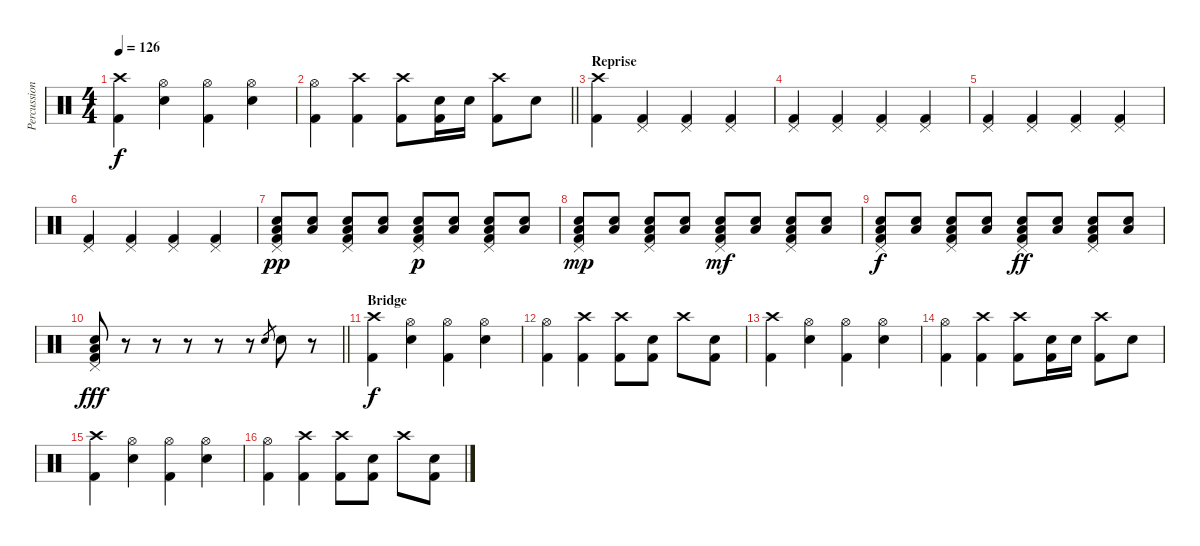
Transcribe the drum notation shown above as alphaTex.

\track ("Percussion" "Percussion") {instrument percussion}
\staff {score}
\articulation defaults
\ts (4 4)
\tempo 126
\clef neutral
\ks c
("Crash high (hit)" "Kick (hit) 2").4{dy f} ("Hi-Hat (open)" "Electric Snare (hit)").4 ("Hi-Hat (open)" "Kick (hit) 2").4 ("Hi-Hat (open)" "Electric Snare (hit)").4 |
\barLineRight lightlight
("Hi-Hat (open)" "Kick (hit) 2").4 ("Crash high (hit)" "Kick (hit) 2").4 ("Crash high (hit)" "Kick (hit) 2").8 ("Electric Snare (hit)" "Kick (hit) 2").16 "Electric Snare (hit)".16 ("Crash high (hit)" "Kick (hit) 2").8 "Electric Snare (hit)".8 |
\section ("" "Reprise")
("Crash high (hit)" "Kick (hit) 2").4 ("Pedal Hi-Hat (hit)" "Kick (hit) 2").4 ("Pedal Hi-Hat (hit)" "Kick (hit) 2").4 ("Pedal Hi-Hat (hit)" "Kick (hit) 2").4 |
("Pedal Hi-Hat (hit)" "Kick (hit) 2").4 ("Pedal Hi-Hat (hit)" "Kick (hit) 2").4 ("Pedal Hi-Hat (hit)" "Kick (hit) 2").4 ("Pedal Hi-Hat (hit)" "Kick (hit) 2").4 |
("Pedal Hi-Hat (hit)" "Kick (hit) 2").4 ("Pedal Hi-Hat (hit)" "Kick (hit) 2").4 ("Pedal Hi-Hat (hit)" "Kick (hit) 2").4 ("Pedal Hi-Hat (hit)" "Kick (hit) 2").4 |
("Pedal Hi-Hat (hit)" "Kick (hit) 2").4 ("Pedal Hi-Hat (hit)" "Kick (hit) 2").4 ("Pedal Hi-Hat (hit)" "Kick (hit) 2").4 ("Pedal Hi-Hat (hit)" "Kick (hit) 2").4 |
("Pedal Hi-Hat (hit)" "Electric Snare (hit)" "Low Floor Tom (hit)" "Kick (hit) 2").8{dy pp} ("Electric Snare (hit)" "Low Floor Tom (hit)").8 ("Pedal Hi-Hat (hit)" "Electric Snare (hit)" "Low Floor Tom (hit)" "Kick (hit) 2").8 ("Electric Snare (hit)" "Low Floor Tom (hit)").8 ("Pedal Hi-Hat (hit)" "Electric Snare (hit)" "Low Floor Tom (hit)" "Kick (hit) 2").8{dy p} ("Electric Snare (hit)" "Low Floor Tom (hit)").8 ("Pedal Hi-Hat (hit)" "Electric Snare (hit)" "Low Floor Tom (hit)" "Kick (hit) 2").8 ("Electric Snare (hit)" "Low Floor Tom (hit)").8 |
("Pedal Hi-Hat (hit)" "Electric Snare (hit)" "Low Floor Tom (hit)" "Kick (hit) 2").8{dy mp} ("Electric Snare (hit)" "Low Floor Tom (hit)").8 ("Pedal Hi-Hat (hit)" "Electric Snare (hit)" "Low Floor Tom (hit)" "Kick (hit) 2").8 ("Electric Snare (hit)" "Low Floor Tom (hit)").8 ("Pedal Hi-Hat (hit)" "Electric Snare (hit)" "Low Floor Tom (hit)" "Kick (hit) 2").8{dy mf} ("Electric Snare (hit)" "Low Floor Tom (hit)").8 ("Pedal Hi-Hat (hit)" "Electric Snare (hit)" "Low Floor Tom (hit)" "Kick (hit) 2").8 ("Electric Snare (hit)" "Low Floor Tom (hit)").8 |
("Pedal Hi-Hat (hit)" "Electric Snare (hit)" "Low Floor Tom (hit)" "Kick (hit) 2").8{dy f} ("Electric Snare (hit)" "Low Floor Tom (hit)").8 ("Pedal Hi-Hat (hit)" "Electric Snare (hit)" "Low Floor Tom (hit)" "Kick (hit) 2").8 ("Electric Snare (hit)" "Low Floor Tom (hit)").8 ("Pedal Hi-Hat (hit)" "Electric Snare (hit)" "Low Floor Tom (hit)" "Kick (hit) 2").8{dy ff} ("Electric Snare (hit)" "Low Floor Tom (hit)").8 ("Pedal Hi-Hat (hit)" "Electric Snare (hit)" "Low Floor Tom (hit)" "Kick (hit) 2").8 ("Electric Snare (hit)" "Low Floor Tom (hit)").8 |
\barLineRight lightlight
("Pedal Hi-Hat (hit)" "Electric Snare (hit)" "Low Floor Tom (hit)" "Kick (hit) 2").8{dy fff} r.8 r.8 r.8 r.8 r.8 "Electric Snare (hit)".8{gr} "Electric Snare (hit)".8 r.8 |
\section ("" "Bridge")
("Crash high (hit)" "Kick (hit) 2").4{dy f} ("Hi-Hat (open)" "Electric Snare (hit)").4 ("Hi-Hat (open)" "Kick (hit) 2").4 ("Hi-Hat (open)" "Electric Snare (hit)").4 |
("Hi-Hat (open)" "Kick (hit) 2").4 ("Crash high (hit)" "Kick (hit) 2").4 ("Crash high (hit)" "Kick (hit) 2").8 ("Electric Snare (hit)" "Kick (hit) 2").8 "Crash high (hit)".8 ("Electric Snare (hit)" "Kick (hit) 2").8 |
("Crash high (hit)" "Kick (hit) 2").4 ("Hi-Hat (open)" "Electric Snare (hit)").4 ("Hi-Hat (open)" "Kick (hit) 2").4 ("Hi-Hat (open)" "Electric Snare (hit)").4 |
("Hi-Hat (open)" "Kick (hit) 2").4 ("Crash high (hit)" "Kick (hit) 2").4 ("Crash high (hit)" "Kick (hit) 2").8 ("Electric Snare (hit)" "Kick (hit) 2").16 "Electric Snare (hit)".16 ("Crash high (hit)" "Kick (hit) 2").8 "Electric Snare (hit)".8 |
("Crash high (hit)" "Kick (hit) 2").4 ("Hi-Hat (open)" "Electric Snare (hit)").4 ("Hi-Hat (open)" "Kick (hit) 2").4 ("Hi-Hat (open)" "Electric Snare (hit)").4 |
("Hi-Hat (open)" "Kick (hit) 2").4 ("Crash high (hit)" "Kick (hit) 2").4 ("Crash high (hit)" "Kick (hit) 2").8 ("Electric Snare (hit)" "Kick (hit) 2").8 "Crash high (hit)".8 ("Electric Snare (hit)" "Kick (hit) 2").8
